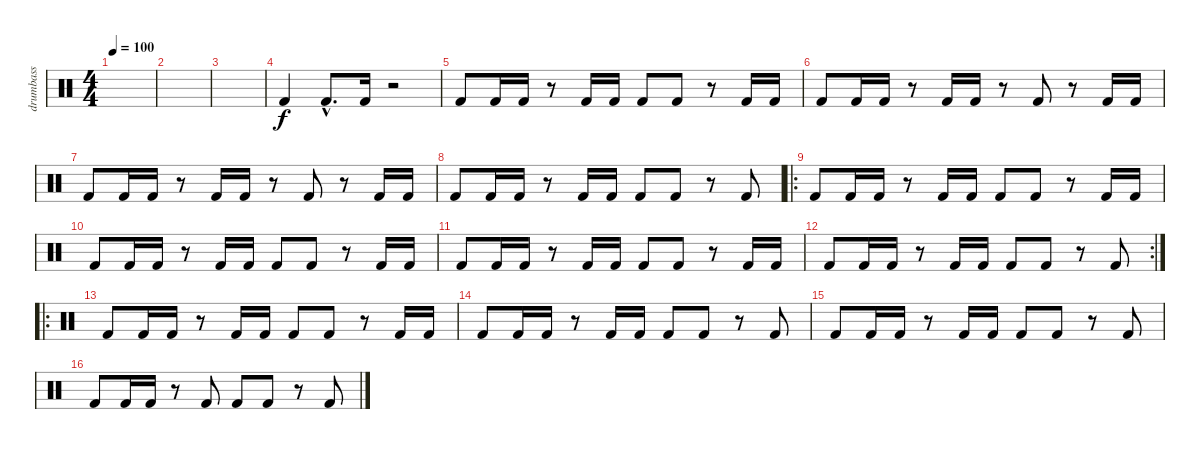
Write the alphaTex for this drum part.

\track ("drumbass" "drumbass") {instrument percussion}
\staff {score}
\articulation defaults
\ts (4 4)
\tempo 100
\clef neutral
\ks c
|
|
|
"Kick (hit) 2".4 "Kick (hit) 2"{hac}.8{d} "Kick (hit) 2".16 r.2 |
"Kick (hit) 2".8 "Kick (hit) 2".16 "Kick (hit) 2".16 r.8 "Kick (hit) 2".16 "Kick (hit) 2".16 "Kick (hit) 2".8 "Kick (hit) 2".8 r.8 "Kick (hit) 2".16 "Kick (hit) 2".16 |
"Kick (hit) 2".8 "Kick (hit) 2".16 "Kick (hit) 2".16 r.8 "Kick (hit) 2".16 "Kick (hit) 2".16 r.8 "Kick (hit) 2".8 r.8 "Kick (hit) 2".16 "Kick (hit) 2".16 |
"Kick (hit) 2".8 "Kick (hit) 2".16 "Kick (hit) 2".16 r.8 "Kick (hit) 2".16 "Kick (hit) 2".16 r.8 "Kick (hit) 2".8 r.8 "Kick (hit) 2".16 "Kick (hit) 2".16 |
"Kick (hit) 2".8 "Kick (hit) 2".16 "Kick (hit) 2".16 r.8 "Kick (hit) 2".16 "Kick (hit) 2".16 "Kick (hit) 2".8 "Kick (hit) 2".8 r.8 "Kick (hit) 2".8 |
\ro "Kick (hit) 2".8 "Kick (hit) 2".16 "Kick (hit) 2".16
r.8 "Kick (hit) 2".16 "Kick (hit) 2".16 "Kick (hit) 2".8 "Kick (hit) 2".8 r.8 "Kick (hit) 2".16 "Kick (hit) 2".16 |
"Kick (hit) 2".8 "Kick (hit) 2".16 "Kick (hit) 2".16 r.8 "Kick (hit) 2".16 "Kick (hit) 2".16 "Kick (hit) 2".8 "Kick (hit) 2".8 r.8 "Kick (hit) 2".16 "Kick (hit) 2".16 |
"Kick (hit) 2".8 "Kick (hit) 2".16 "Kick (hit) 2".16 r.8 "Kick (hit) 2".16 "Kick (hit) 2".16 "Kick (hit) 2".8 "Kick (hit) 2".8 r.8 "Kick (hit) 2".16 "Kick (hit) 2".16 |
\rc 2 "Kick (hit) 2".8 "Kick (hit) 2".16 "Kick (hit) 2".16
r.8 "Kick (hit) 2".16 "Kick (hit) 2".16 "Kick (hit) 2".8 "Kick (hit) 2".8 r.8 "Kick (hit) 2".8 |
\ro "Kick (hit) 2".8 "Kick (hit) 2".16 "Kick (hit) 2".16
r.8 "Kick (hit) 2".16 "Kick (hit) 2".16 "Kick (hit) 2".8 "Kick (hit) 2".8 r.8 "Kick (hit) 2".16 "Kick (hit) 2".16 |
"Kick (hit) 2".8 "Kick (hit) 2".16 "Kick (hit) 2".16 r.8 "Kick (hit) 2".16 "Kick (hit) 2".16 "Kick (hit) 2".8 "Kick (hit) 2".8 r.8 "Kick (hit) 2".8 |
"Kick (hit) 2".8 "Kick (hit) 2".16 "Kick (hit) 2".16 r.8 "Kick (hit) 2".16 "Kick (hit) 2".16 "Kick (hit) 2".8 "Kick (hit) 2".8 r.8 "Kick (hit) 2".8 |
"Kick (hit) 2".8 "Kick (hit) 2".16 "Kick (hit) 2".16 r.8 "Kick (hit) 2".8 "Kick (hit) 2".8 "Kick (hit) 2".8 r.8 "Kick (hit) 2".8
